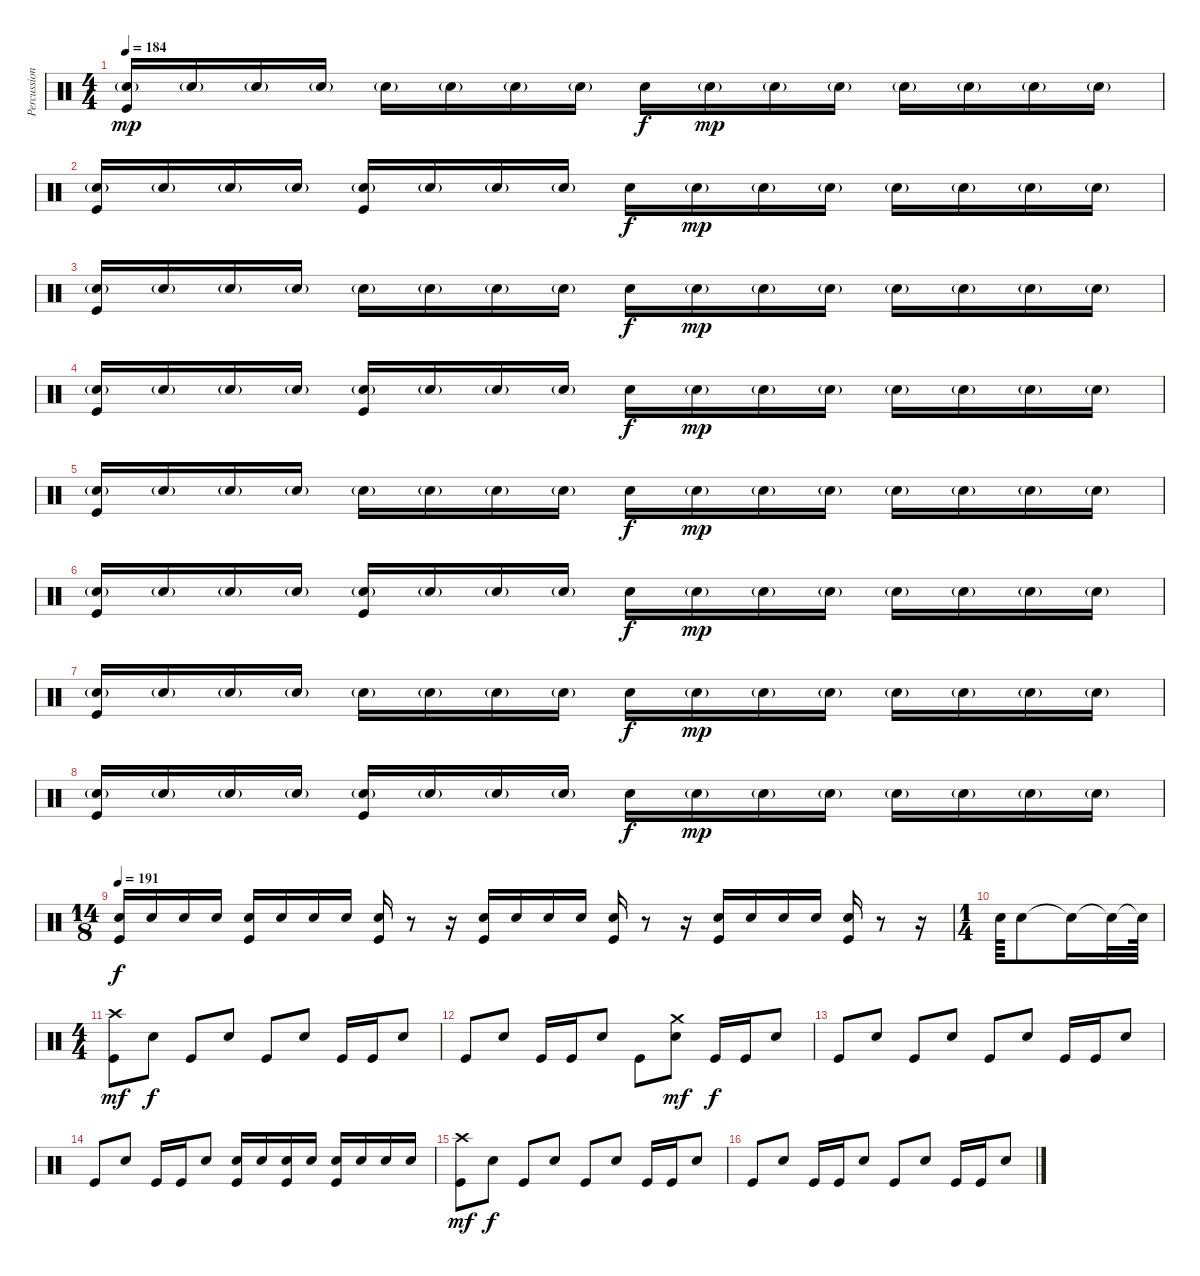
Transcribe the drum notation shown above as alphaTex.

\track ("Percussion" "Percussion") {instrument percussion}
\staff {score}
\articulation defaults
\ts (4 4)
\tempo 184
\clef neutral
\ks c
("Electric Snare (hit)"{g} "Kick (hit)").16{dy mp} "Electric Snare (hit)"{g}.16 "Electric Snare (hit)"{g}.16 "Electric Snare (hit)"{g}.16 "Electric Snare (hit)"{g}.16 "Electric Snare (hit)"{g}.16 "Electric Snare (hit)"{g}.16 "Electric Snare (hit)"{g}.16 "Electric Snare (hit)".16{dy f} "Electric Snare (hit)"{g}.16{dy mp} "Electric Snare (hit)"{g}.16 "Electric Snare (hit)"{g}.16 "Electric Snare (hit)"{g}.16 "Electric Snare (hit)"{g}.16 "Electric Snare (hit)"{g}.16 "Electric Snare (hit)"{g}.16 |
("Electric Snare (hit)"{g} "Kick (hit)").16 "Electric Snare (hit)"{g}.16 "Electric Snare (hit)"{g}.16 "Electric Snare (hit)"{g}.16 ("Electric Snare (hit)"{g} "Kick (hit)").16 "Electric Snare (hit)"{g}.16 "Electric Snare (hit)"{g}.16 "Electric Snare (hit)"{g}.16 "Electric Snare (hit)".16{dy f} "Electric Snare (hit)"{g}.16{dy mp} "Electric Snare (hit)"{g}.16 "Electric Snare (hit)"{g}.16 "Electric Snare (hit)"{g}.16 "Electric Snare (hit)"{g}.16 "Electric Snare (hit)"{g}.16 "Electric Snare (hit)"{g}.16 |
("Electric Snare (hit)"{g} "Kick (hit)").16 "Electric Snare (hit)"{g}.16 "Electric Snare (hit)"{g}.16 "Electric Snare (hit)"{g}.16 "Electric Snare (hit)"{g}.16 "Electric Snare (hit)"{g}.16 "Electric Snare (hit)"{g}.16 "Electric Snare (hit)"{g}.16 "Electric Snare (hit)".16{dy f} "Electric Snare (hit)"{g}.16{dy mp} "Electric Snare (hit)"{g}.16 "Electric Snare (hit)"{g}.16 "Electric Snare (hit)"{g}.16 "Electric Snare (hit)"{g}.16 "Electric Snare (hit)"{g}.16 "Electric Snare (hit)"{g}.16 |
("Electric Snare (hit)"{g} "Kick (hit)").16 "Electric Snare (hit)"{g}.16 "Electric Snare (hit)"{g}.16 "Electric Snare (hit)"{g}.16 ("Electric Snare (hit)"{g} "Kick (hit)").16 "Electric Snare (hit)"{g}.16 "Electric Snare (hit)"{g}.16 "Electric Snare (hit)"{g}.16 "Electric Snare (hit)".16{dy f} "Electric Snare (hit)"{g}.16{dy mp} "Electric Snare (hit)"{g}.16 "Electric Snare (hit)"{g}.16 "Electric Snare (hit)"{g}.16 "Electric Snare (hit)"{g}.16 "Electric Snare (hit)"{g}.16 "Electric Snare (hit)"{g}.16 |
("Electric Snare (hit)"{g} "Kick (hit)").16 "Electric Snare (hit)"{g}.16 "Electric Snare (hit)"{g}.16 "Electric Snare (hit)"{g}.16 "Electric Snare (hit)"{g}.16 "Electric Snare (hit)"{g}.16 "Electric Snare (hit)"{g}.16 "Electric Snare (hit)"{g}.16 "Electric Snare (hit)".16{dy f} "Electric Snare (hit)"{g}.16{dy mp} "Electric Snare (hit)"{g}.16 "Electric Snare (hit)"{g}.16 "Electric Snare (hit)"{g}.16 "Electric Snare (hit)"{g}.16 "Electric Snare (hit)"{g}.16 "Electric Snare (hit)"{g}.16 |
("Electric Snare (hit)"{g} "Kick (hit)").16 "Electric Snare (hit)"{g}.16 "Electric Snare (hit)"{g}.16 "Electric Snare (hit)"{g}.16 ("Electric Snare (hit)"{g} "Kick (hit)").16 "Electric Snare (hit)"{g}.16 "Electric Snare (hit)"{g}.16 "Electric Snare (hit)"{g}.16 "Electric Snare (hit)".16{dy f} "Electric Snare (hit)"{g}.16{dy mp} "Electric Snare (hit)"{g}.16 "Electric Snare (hit)"{g}.16 "Electric Snare (hit)"{g}.16 "Electric Snare (hit)"{g}.16 "Electric Snare (hit)"{g}.16 "Electric Snare (hit)"{g}.16 |
("Electric Snare (hit)"{g} "Kick (hit)").16 "Electric Snare (hit)"{g}.16 "Electric Snare (hit)"{g}.16 "Electric Snare (hit)"{g}.16 "Electric Snare (hit)"{g}.16 "Electric Snare (hit)"{g}.16 "Electric Snare (hit)"{g}.16 "Electric Snare (hit)"{g}.16 "Electric Snare (hit)".16{dy f} "Electric Snare (hit)"{g}.16{dy mp} "Electric Snare (hit)"{g}.16 "Electric Snare (hit)"{g}.16 "Electric Snare (hit)"{g}.16 "Electric Snare (hit)"{g}.16 "Electric Snare (hit)"{g}.16 "Electric Snare (hit)"{g}.16 |
("Electric Snare (hit)"{g} "Kick (hit)").16 "Electric Snare (hit)"{g}.16 "Electric Snare (hit)"{g}.16 "Electric Snare (hit)"{g}.16 ("Electric Snare (hit)"{g} "Kick (hit)").16 "Electric Snare (hit)"{g}.16 "Electric Snare (hit)"{g}.16 "Electric Snare (hit)"{g}.16 "Electric Snare (hit)".16{dy f} "Electric Snare (hit)"{g}.16{dy mp} "Electric Snare (hit)"{g}.16 "Electric Snare (hit)"{g}.16 "Electric Snare (hit)"{g}.16 "Electric Snare (hit)"{g}.16 "Electric Snare (hit)"{g}.16 "Electric Snare (hit)"{g}.16 |
\ts (14 8)
\tempo 191
("Electric Snare (hit)" "Kick (hit)").16{dy f} "Electric Snare (hit)".16 "Electric Snare (hit)".16 "Electric Snare (hit)".16 ("Electric Snare (hit)" "Kick (hit)").16 "Electric Snare (hit)".16 "Electric Snare (hit)".16 "Electric Snare (hit)".16 ("Electric Snare (hit)" "Kick (hit)").16 r.8 r.16 ("Electric Snare (hit)" "Kick (hit)").16 "Electric Snare (hit)".16 "Electric Snare (hit)".16 "Electric Snare (hit)".16 ("Electric Snare (hit)" "Kick (hit)").16 r.8 r.16 ("Electric Snare (hit)" "Kick (hit)").16 "Electric Snare (hit)".16 "Electric Snare (hit)".16 "Electric Snare (hit)".16 ("Electric Snare (hit)" "Kick (hit)").16 r.8 r.16 |
\ts (1 4)
"Electric Snare (hit)".64 "Electric Snare (hit)".8 "Snare (hit)"{t}.16 "Snare (hit)"{t}.32 "Snare (hit)"{t}.64 |
\ts (4 4)
("Crash high (hit)" "Kick (hit)").8{dy mf} "Electric Snare (hit)".8{dy f} "Kick (hit)".8 "Electric Snare (hit)".8 "Kick (hit)".8 "Electric Snare (hit)".8 "Kick (hit)".16 "Kick (hit)".16 "Electric Snare (hit)".8 |
"Kick (hit)".8 "Electric Snare (hit)".8 "Kick (hit)".16 "Kick (hit)".16 "Electric Snare (hit)".8 "Kick (hit)".8 ("Crash medium (hit)" "Electric Snare (hit)").8{dy mf} "Kick (hit)".16{dy f} "Kick (hit)".16 "Electric Snare (hit)".8 |
"Kick (hit)".8 "Electric Snare (hit)".8 "Kick (hit)".8 "Electric Snare (hit)".8 "Kick (hit)".8 "Electric Snare (hit)".8 "Kick (hit)".16 "Kick (hit)".16 "Electric Snare (hit)".8 |
"Kick (hit)".8 "Electric Snare (hit)".8 "Kick (hit)".16 "Kick (hit)".16 "Electric Snare (hit)".8 ("Electric Snare (hit)" "Kick (hit)").16 "Electric Snare (hit)".16 ("Electric Snare (hit)" "Kick (hit)").16 "Electric Snare (hit)".16 ("Electric Snare (hit)" "Kick (hit)").16 "Electric Snare (hit)".16 "Electric Snare (hit)".16 "Electric Snare (hit)".16 |
("Crash high (hit)" "Kick (hit)").8{dy mf} "Electric Snare (hit)".8{dy f} "Kick (hit)".8 "Electric Snare (hit)".8 "Kick (hit)".8 "Electric Snare (hit)".8 "Kick (hit)".16 "Kick (hit)".16 "Electric Snare (hit)".8 |
"Kick (hit)".8 "Electric Snare (hit)".8 "Kick (hit)".16 "Kick (hit)".16 "Electric Snare (hit)".8 "Kick (hit)".8 "Electric Snare (hit)".8 "Kick (hit)".16 "Kick (hit)".16 "Electric Snare (hit)".8
